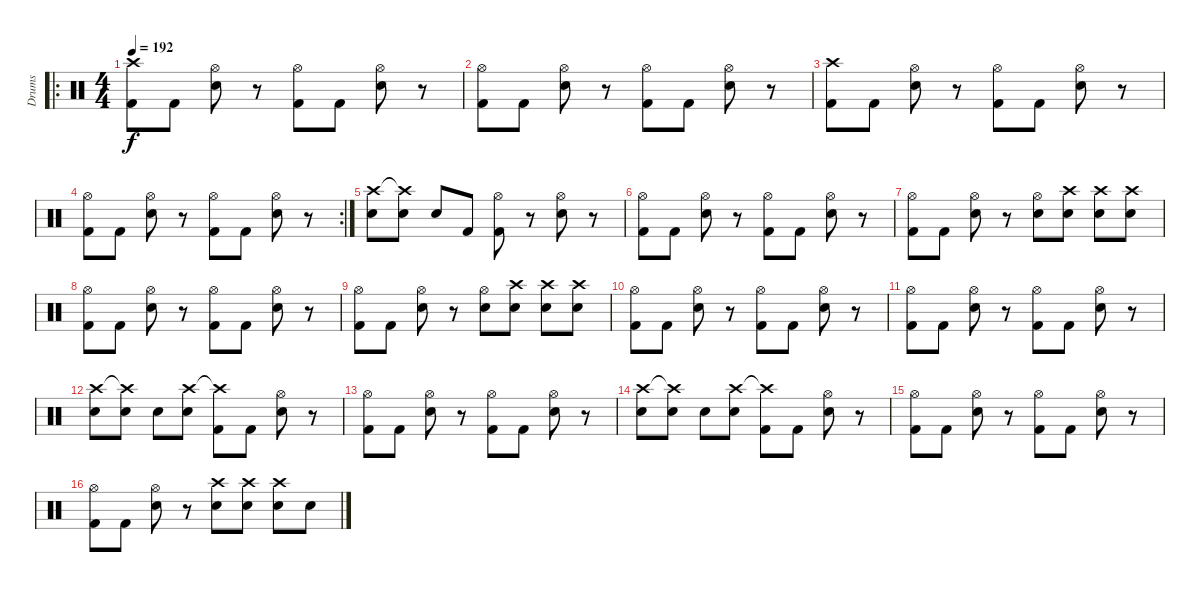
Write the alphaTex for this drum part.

\track ("Drums" "Drums") {instrument percussion}
\staff {score}
\articulation defaults
\ro
\ts (4 4)
\tempo 192
\clef neutral
\ks c
("Crash high (hit)" "Kick (hit) 2").8{dy f} "Kick (hit) 2".8 ("Hi-Hat (open)" "Snare (hit) 2").8 r.8 ("Hi-Hat (open)" "Kick (hit) 2").8 "Kick (hit) 2".8 ("Hi-Hat (open)" "Snare (hit) 2").8 r.8 |
("Hi-Hat (open)" "Kick (hit) 2").8 "Kick (hit) 2".8 ("Hi-Hat (open)" "Snare (hit) 2").8 r.8 ("Hi-Hat (open)" "Kick (hit) 2").8 "Kick (hit) 2".8 ("Hi-Hat (open)" "Snare (hit) 2").8 r.8 |
("Crash high (hit)" "Kick (hit) 2").8 "Kick (hit) 2".8 ("Hi-Hat (open)" "Snare (hit) 2").8 r.8 ("Hi-Hat (open)" "Kick (hit) 2").8 "Kick (hit) 2".8 ("Hi-Hat (open)" "Snare (hit) 2").8 r.8 |
\rc 2
("Hi-Hat (open)" "Kick (hit) 2").8 "Kick (hit) 2".8 ("Hi-Hat (open)" "Snare (hit) 2").8 r.8 ("Hi-Hat (open)" "Kick (hit) 2").8 "Kick (hit) 2".8 ("Hi-Hat (open)" "Snare (hit) 2").8 r.8 |
("Crash high (hit)" "Electric Snare (hit)").8 ("Crash high (hit)"{t} "Electric Snare (hit)").8 "Electric Snare (hit)".8 "Kick (hit) 2".8 ("Hi-Hat (open)" "Kick (hit) 2").8 r.8 ("Hi-Hat (open)" "Snare (hit) 2").8 r.8 |
("Hi-Hat (open)" "Kick (hit) 2").8 "Kick (hit) 2".8 ("Hi-Hat (open)" "Snare (hit) 2").8 r.8 ("Hi-Hat (open)" "Kick (hit) 2").8 "Kick (hit) 2".8 ("Hi-Hat (open)" "Snare (hit) 2").8 r.8 |
("Hi-Hat (open)" "Kick (hit) 2").8 "Kick (hit) 2".8 ("Hi-Hat (open)" "Snare (hit) 2").8 r.8 ("Hi-Hat (open)" "Snare (hit) 2").8 ("Crash high (hit)" "Snare (hit) 2").8 ("Crash high (hit)" "Snare (hit) 2").8 ("Crash high (hit)" "Snare (hit) 2").8 |
("Hi-Hat (open)" "Kick (hit) 2").8 "Kick (hit) 2".8 ("Hi-Hat (open)" "Snare (hit) 2").8 r.8 ("Hi-Hat (open)" "Kick (hit) 2").8 "Kick (hit) 2".8 ("Hi-Hat (open)" "Snare (hit) 2").8 r.8 |
("Hi-Hat (open)" "Kick (hit) 2").8 "Kick (hit) 2".8 ("Hi-Hat (open)" "Snare (hit) 2").8 r.8 ("Hi-Hat (open)" "Snare (hit) 2").8 ("Crash high (hit)" "Snare (hit) 2").8 ("Crash high (hit)" "Snare (hit) 2").8 ("Crash high (hit)" "Snare (hit) 2").8 |
("Hi-Hat (open)" "Kick (hit) 2").8 "Kick (hit) 2".8 ("Hi-Hat (open)" "Snare (hit) 2").8 r.8 ("Hi-Hat (open)" "Kick (hit) 2").8 "Kick (hit) 2".8 ("Hi-Hat (open)" "Snare (hit) 2").8 r.8 |
("Hi-Hat (open)" "Kick (hit) 2").8 "Kick (hit) 2".8 ("Hi-Hat (open)" "Snare (hit) 2").8 r.8 ("Hi-Hat (open)" "Kick (hit) 2").8 "Kick (hit) 2".8 ("Hi-Hat (open)" "Snare (hit) 2").8 r.8 |
("Crash high (hit)" "Electric Snare (hit)").8 ("Crash high (hit)"{t} "Electric Snare (hit)").8 "Electric Snare (hit)".8 ("Crash high (hit)" "Electric Snare (hit)").8 ("Crash high (hit)"{t} "Kick (hit) 2").8 "Kick (hit) 2".8 ("Hi-Hat (open)" "Snare (hit) 2").8 r.8 |
("Hi-Hat (open)" "Kick (hit) 2").8 "Kick (hit) 2".8 ("Hi-Hat (open)" "Snare (hit) 2").8 r.8 ("Hi-Hat (open)" "Kick (hit) 2").8 "Kick (hit) 2".8 ("Hi-Hat (open)" "Snare (hit) 2").8 r.8 |
("Crash high (hit)" "Electric Snare (hit)").8 ("Crash high (hit)"{t} "Electric Snare (hit)").8 "Electric Snare (hit)".8 ("Crash high (hit)" "Electric Snare (hit)").8 ("Crash high (hit)"{t} "Kick (hit) 2").8 "Kick (hit) 2".8 ("Hi-Hat (open)" "Snare (hit) 2").8 r.8 |
("Hi-Hat (open)" "Kick (hit) 2").8 "Kick (hit) 2".8 ("Hi-Hat (open)" "Snare (hit) 2").8 r.8 ("Hi-Hat (open)" "Kick (hit) 2").8 "Kick (hit) 2".8 ("Hi-Hat (open)" "Snare (hit) 2").8 r.8 |
("Hi-Hat (open)" "Kick (hit) 2").8 "Kick (hit) 2".8 ("Hi-Hat (open)" "Snare (hit) 2").8 r.8 ("Crash high (hit)" "Snare (hit) 2").8 ("Crash high (hit)" "Snare (hit) 2").8 ("Crash high (hit)" "Snare (hit) 2").8 "Snare (hit) 2".8
